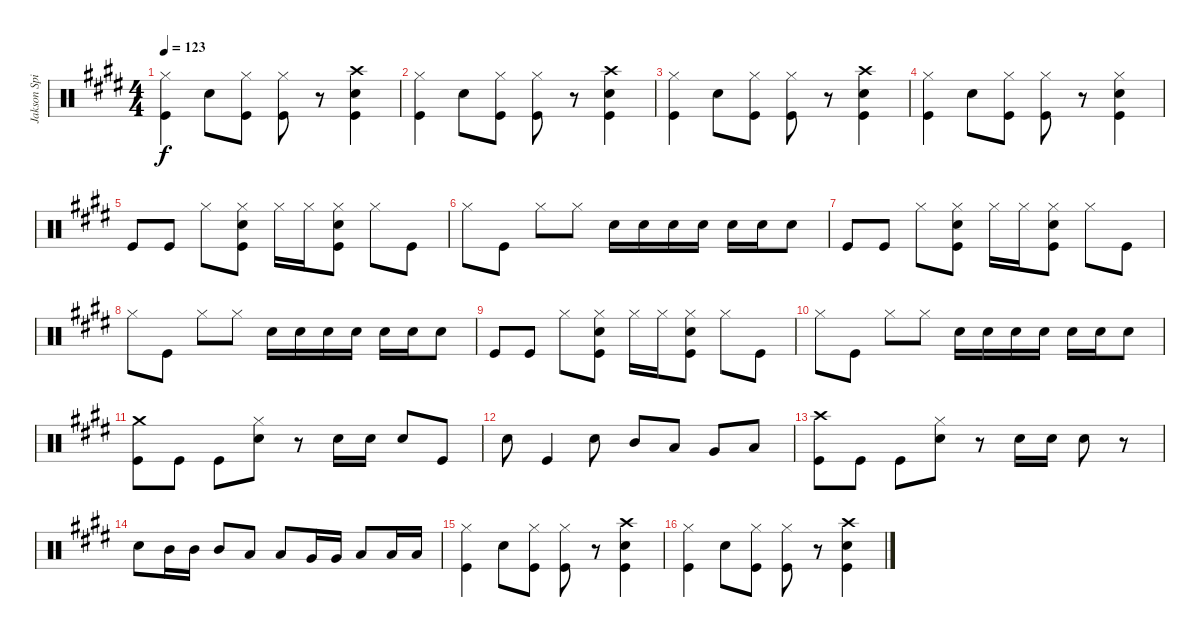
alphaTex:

\track ("Jakson Spires Drums" "Jakson Spi") {instrument percussion}
\staff {score}
\articulation defaults
\ts (4 4)
\tempo 123
\clef neutral
\ks e
("Hi-Hat (closed)" "Kick (hit)").4{dy f} "Snare (hit) 2".8 ("Hi-Hat (closed)" "Kick (hit)").8 ("Hi-Hat (closed)" "Kick (hit)").8 r.8 ("Crash high (hit)" "Snare (hit) 2" "Kick (hit)").4 |
("Hi-Hat (closed)" "Kick (hit)").4 "Snare (hit) 2".8 ("Hi-Hat (closed)" "Kick (hit)").8 ("Hi-Hat (closed)" "Kick (hit)").8 r.8 ("Crash high (hit)" "Snare (hit) 2" "Kick (hit)").4 |
("Hi-Hat (closed)" "Kick (hit)").4 "Snare (hit) 2".8 ("Hi-Hat (closed)" "Kick (hit)").8 ("Hi-Hat (closed)" "Kick (hit)").8 r.8 ("Crash high (hit)" "Snare (hit) 2" "Kick (hit)").4 |
("Hi-Hat (closed)" "Kick (hit)").4 "Snare (hit) 2".8 ("Hi-Hat (closed)" "Kick (hit)").8 ("Hi-Hat (closed)" "Kick (hit)").8 r.8 ("Hi-Hat (closed)" "Snare (hit) 2" "Kick (hit)").4 |
"Kick (hit)".8 "Kick (hit)".8 "Hi-Hat (closed)".8 ("Hi-Hat (closed)" "Snare (hit) 2" "Kick (hit)").8 "Hi-Hat (closed)".16 "Hi-Hat (closed)".16 ("Hi-Hat (closed)" "Snare (hit) 2" "Kick (hit)").8 "Hi-Hat (closed)".8 "Kick (hit)".8 |
"Hi-Hat (closed)".8 "Kick (hit)".8 "Hi-Hat (closed)".8 "Hi-Hat (closed)".8 "Snare (hit) 2".16 "Snare (hit) 2".16 "Snare (hit) 2".16 "Snare (hit) 2".16 "Snare (hit) 2".16 "Snare (hit) 2".16 "Snare (hit) 2".8 |
"Kick (hit)".8 "Kick (hit)".8 "Hi-Hat (closed)".8 ("Hi-Hat (closed)" "Snare (hit) 2" "Kick (hit)").8 "Hi-Hat (closed)".16 "Hi-Hat (closed)".16 ("Hi-Hat (closed)" "Snare (hit) 2" "Kick (hit)").8 "Hi-Hat (closed)".8 "Kick (hit)".8 |
"Hi-Hat (closed)".8 "Kick (hit)".8 "Hi-Hat (closed)".8 "Hi-Hat (closed)".8 "Snare (hit) 2".16 "Snare (hit) 2".16 "Snare (hit) 2".16 "Snare (hit) 2".16 "Snare (hit) 2".16 "Snare (hit) 2".16 "Snare (hit) 2".8 |
"Kick (hit)".8 "Kick (hit)".8 "Hi-Hat (closed)".8 ("Hi-Hat (closed)" "Snare (hit) 2" "Kick (hit)").8 "Hi-Hat (closed)".16 "Hi-Hat (closed)".16 ("Hi-Hat (closed)" "Snare (hit) 2" "Kick (hit)").8 "Hi-Hat (closed)".8 "Kick (hit)".8 |
"Hi-Hat (closed)".8 "Kick (hit)".8 "Hi-Hat (closed)".8 "Hi-Hat (closed)".8 "Snare (hit) 2".16 "Snare (hit) 2".16 "Snare (hit) 2".16 "Snare (hit) 2".16 "Snare (hit) 2".16 "Snare (hit) 2".16 "Snare (hit) 2".8 |
("Crash medium (hit)" "Kick (hit)").8 "Kick (hit)".8 "Kick (hit)".8 ("Hi-Hat (closed)" "Snare (hit) 2").8 r.8 "Snare (hit) 2".16 "Snare (hit) 2".16 "Snare (hit) 2".8 "Kick (hit)".8 |
"Snare (hit) 2".8 "Kick (hit)".4 "Snare (hit) 2".8 "Mid Tom (hit)".8 "Low Tom (hit)".8 "Very Low Tom (hit)".8 "Low Floor Tom (hit)".8 |
("Crash high (hit)" "Kick (hit)").8 "Kick (hit)".8 "Kick (hit)".8 ("Hi-Hat (closed)" "Snare (hit) 2").8 r.8 "Snare (hit) 2".16 "Snare (hit) 2".16 "Snare (hit) 2".8 r.8 |
"Snare (hit) 2".8 "Mid Tom (hit)".16 "Mid Tom (hit)".16 "Mid Tom (hit)".8 "Low Tom (hit)".8 "Low Tom (hit)".8 "Very Low Tom (hit)".16 "Very Low Tom (hit)".16 "Low Floor Tom (hit)".8 "Low Floor Tom (hit)".16 "Low Floor Tom (hit)".16 |
("Hi-Hat (closed)" "Kick (hit)").4 "Snare (hit) 2".8 ("Hi-Hat (closed)" "Kick (hit)").8 ("Hi-Hat (closed)" "Kick (hit)").8 r.8 ("Crash high (hit)" "Snare (hit) 2" "Kick (hit)").4 |
("Hi-Hat (closed)" "Kick (hit)").4 "Snare (hit) 2".8 ("Hi-Hat (closed)" "Kick (hit)").8 ("Hi-Hat (closed)" "Kick (hit)").8 r.8 ("Crash high (hit)" "Snare (hit) 2" "Kick (hit)").4
